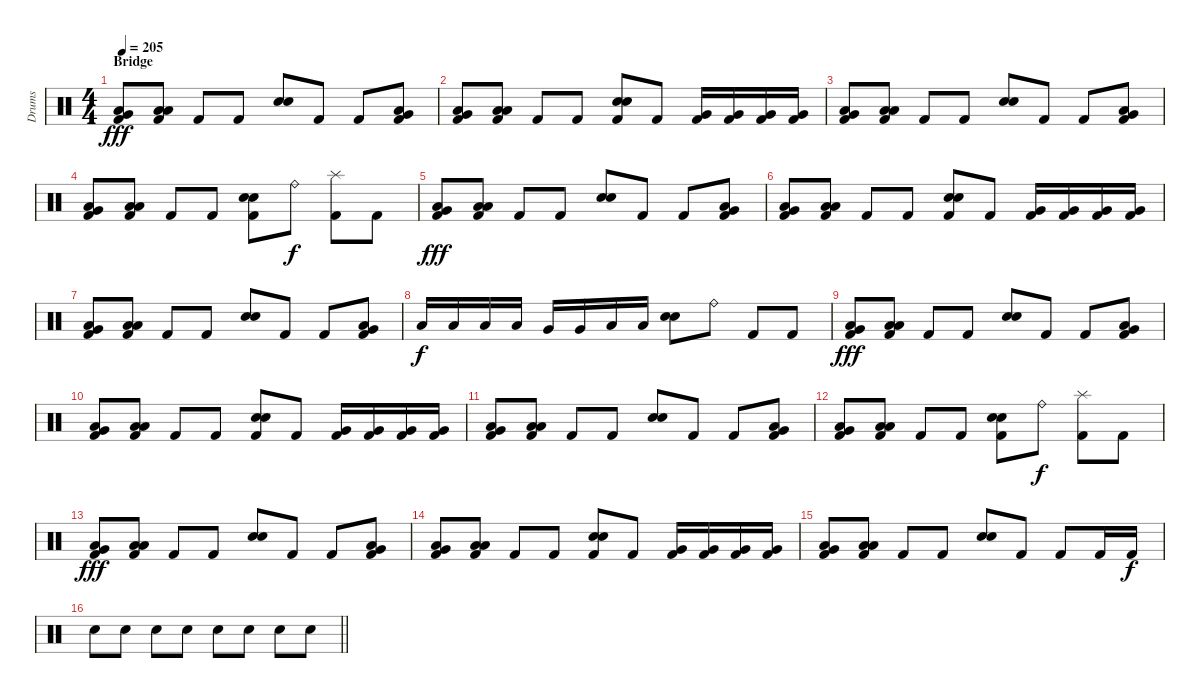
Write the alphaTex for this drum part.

\track ("Drums" "Drums") {instrument percussion}
\staff {score}
\articulation defaults
\ts (4 4)
\section ("" "Bridge")
\tempo 205
\clef neutral
\ks c
("Very Low Tom (hit)" "Low Floor Tom (hit)" "Kick (hit) 2").8{dy fff} ("Low Floor Tom (hit)" "Low Floor Tom (hit)" "Kick (hit) 2").8 "Kick (hit) 2".8 "Kick (hit) 2".8 ("Snare (hit) 2" "Snare (hit) 2").8 "Kick (hit) 2".8 "Kick (hit) 2".8 ("Very Low Tom (hit)" "Low Floor Tom (hit)" "Kick (hit) 2").8 |
("Very Low Tom (hit)" "Low Floor Tom (hit)" "Kick (hit) 2").8 ("Low Floor Tom (hit)" "Low Floor Tom (hit)" "Kick (hit) 2").8 "Kick (hit) 2".8 "Kick (hit) 2".8 ("Snare (hit) 2" "Snare (hit) 2" "Kick (hit) 2").8 "Kick (hit) 2".8 ("Very Low Tom (hit)" "Kick (hit) 2").16 ("Very Low Tom (hit)" "Kick (hit) 2").16 ("Very Low Tom (hit)" "Kick (hit) 2").16 ("Very Low Tom (hit)" "Kick (hit) 2").16 |
("Very Low Tom (hit)" "Low Floor Tom (hit)" "Kick (hit) 2").8 ("Low Floor Tom (hit)" "Low Floor Tom (hit)" "Kick (hit) 2").8 "Kick (hit) 2".8 "Kick (hit) 2".8 ("Snare (hit) 2" "Snare (hit) 2").8 "Kick (hit) 2".8 "Kick (hit) 2".8 ("Very Low Tom (hit)" "Low Floor Tom (hit)" "Kick (hit) 2").8 |
("Very Low Tom (hit)" "Low Floor Tom (hit)" "Kick (hit) 2").8 ("Low Floor Tom (hit)" "Low Floor Tom (hit)" "Kick (hit) 2").8 "Kick (hit) 2".8 "Kick (hit) 2".8 ("Snare (hit) 2" "Snare (hit) 2" "Kick (hit) 2").8 "Ride (bell)".8{dy f} ("Splash (hit)" "Kick (hit) 2").8 "Kick (hit) 2".8 |
("Very Low Tom (hit)" "Low Floor Tom (hit)" "Kick (hit) 2").8{dy fff} ("Low Floor Tom (hit)" "Low Floor Tom (hit)" "Kick (hit) 2").8 "Kick (hit) 2".8 "Kick (hit) 2".8 ("Snare (hit) 2" "Snare (hit) 2").8 "Kick (hit) 2".8 "Kick (hit) 2".8 ("Very Low Tom (hit)" "Low Floor Tom (hit)" "Kick (hit) 2").8 |
("Very Low Tom (hit)" "Low Floor Tom (hit)" "Kick (hit) 2").8 ("Low Floor Tom (hit)" "Low Floor Tom (hit)" "Kick (hit) 2").8 "Kick (hit) 2".8 "Kick (hit) 2".8 ("Snare (hit) 2" "Snare (hit) 2" "Kick (hit) 2").8 "Kick (hit) 2".8 ("Very Low Tom (hit)" "Kick (hit) 2").16 ("Very Low Tom (hit)" "Kick (hit) 2").16 ("Very Low Tom (hit)" "Kick (hit) 2").16 ("Very Low Tom (hit)" "Kick (hit) 2").16 |
("Very Low Tom (hit)" "Low Floor Tom (hit)" "Kick (hit) 2").8 ("Low Floor Tom (hit)" "Low Floor Tom (hit)" "Kick (hit) 2").8 "Kick (hit) 2".8 "Kick (hit) 2".8 ("Snare (hit) 2" "Snare (hit) 2").8 "Kick (hit) 2".8 "Kick (hit) 2".8 ("Very Low Tom (hit)" "Low Floor Tom (hit)" "Kick (hit) 2").8 |
"Low Tom (hit)".16{dy f} "Low Tom (hit)".16 "Low Tom (hit)".16 "Low Tom (hit)".16 "Very Low Tom (hit)".16 "Very Low Tom (hit)".16 "Low Floor Tom (hit)".16 "Low Floor Tom (hit)".16 ("Snare (hit) 2" "Snare (hit) 2").8 "Ride (bell)".8 "Kick (hit) 2".8 "Kick (hit) 2".8 |
("Very Low Tom (hit)" "Low Floor Tom (hit)" "Kick (hit) 2").8{dy fff} ("Low Floor Tom (hit)" "Low Floor Tom (hit)" "Kick (hit) 2").8 "Kick (hit) 2".8 "Kick (hit) 2".8 ("Snare (hit) 2" "Snare (hit) 2").8 "Kick (hit) 2".8 "Kick (hit) 2".8 ("Very Low Tom (hit)" "Low Floor Tom (hit)" "Kick (hit) 2").8 |
("Very Low Tom (hit)" "Low Floor Tom (hit)" "Kick (hit) 2").8 ("Low Floor Tom (hit)" "Low Floor Tom (hit)" "Kick (hit) 2").8 "Kick (hit) 2".8 "Kick (hit) 2".8 ("Snare (hit) 2" "Snare (hit) 2" "Kick (hit) 2").8 "Kick (hit) 2".8 ("Very Low Tom (hit)" "Kick (hit) 2").16 ("Very Low Tom (hit)" "Kick (hit) 2").16 ("Very Low Tom (hit)" "Kick (hit) 2").16 ("Very Low Tom (hit)" "Kick (hit) 2").16 |
("Very Low Tom (hit)" "Low Floor Tom (hit)" "Kick (hit) 2").8 ("Low Floor Tom (hit)" "Low Floor Tom (hit)" "Kick (hit) 2").8 "Kick (hit) 2".8 "Kick (hit) 2".8 ("Snare (hit) 2" "Snare (hit) 2").8 "Kick (hit) 2".8 "Kick (hit) 2".8 ("Very Low Tom (hit)" "Low Floor Tom (hit)" "Kick (hit) 2").8 |
("Very Low Tom (hit)" "Low Floor Tom (hit)" "Kick (hit) 2").8 ("Low Floor Tom (hit)" "Low Floor Tom (hit)" "Kick (hit) 2").8 "Kick (hit) 2".8 "Kick (hit) 2".8 ("Snare (hit) 2" "Snare (hit) 2" "Kick (hit) 2").8 "Ride (bell)".8{dy f} ("Splash (hit)" "Kick (hit) 2").8 "Kick (hit) 2".8 |
("Very Low Tom (hit)" "Low Floor Tom (hit)" "Kick (hit) 2").8{dy fff} ("Low Floor Tom (hit)" "Low Floor Tom (hit)" "Kick (hit) 2").8 "Kick (hit) 2".8 "Kick (hit) 2".8 ("Snare (hit) 2" "Snare (hit) 2").8 "Kick (hit) 2".8 "Kick (hit) 2".8 ("Very Low Tom (hit)" "Low Floor Tom (hit)" "Kick (hit) 2").8 |
("Very Low Tom (hit)" "Low Floor Tom (hit)" "Kick (hit) 2").8 ("Low Floor Tom (hit)" "Low Floor Tom (hit)" "Kick (hit) 2").8 "Kick (hit) 2".8 "Kick (hit) 2".8 ("Snare (hit) 2" "Snare (hit) 2" "Kick (hit) 2").8 "Kick (hit) 2".8 ("Very Low Tom (hit)" "Kick (hit) 2").16 ("Very Low Tom (hit)" "Kick (hit) 2").16 ("Very Low Tom (hit)" "Kick (hit) 2").16 ("Very Low Tom (hit)" "Kick (hit) 2").16 |
("Very Low Tom (hit)" "Low Floor Tom (hit)" "Kick (hit) 2").8 ("Low Floor Tom (hit)" "Low Floor Tom (hit)" "Kick (hit) 2").8 "Kick (hit) 2".8 "Kick (hit) 2".8 ("Snare (hit) 2" "Snare (hit) 2").8 "Kick (hit) 2".8 "Kick (hit) 2".8 "Kick (hit) 2".16 "Kick (hit) 2".16{dy f} |
\barLineRight lightlight "Snare (hit) 2".8 "Snare (hit) 2".8 "Snare (hit) 2".8 "Snare (hit) 2".8 "Snare (hit) 2".8 "Snare (hit) 2".8 "Snare (hit) 2".8 "Snare (hit) 2".8
